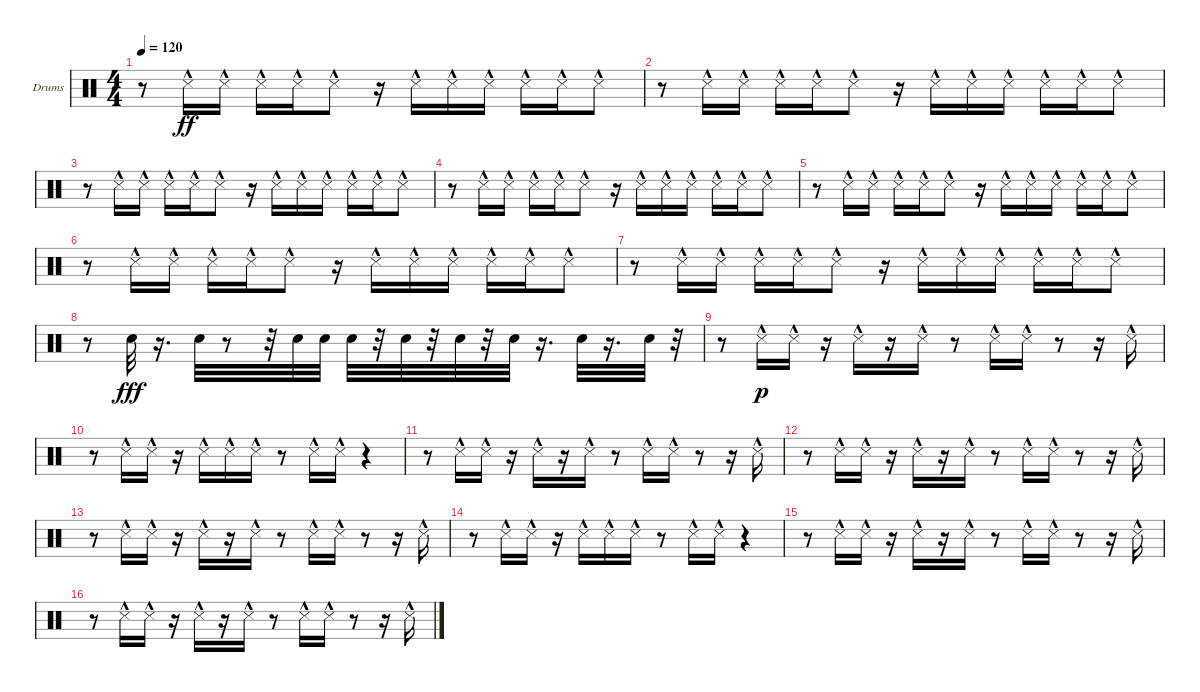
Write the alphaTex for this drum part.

\defaultSystemsLayout 4
\bracketExtendMode groupsimilarinstruments
\firstSystemTrackNameOrientation horizontal
\otherSystemsTrackNameOrientation horizontal
\track ("Drumkit" "Drums") {instrument percussion}
\staff {score}
\articulation defaults
\ts (4 4)
\tempo 120
\clef neutral
\scale
0.333333
\ks c
r.8{dy ff} "Snare (side stick) 3"{hac}.16 "Snare (side stick) 3"{hac}.16 "Snare (side stick) 3"{hac}.16 "Snare (side stick) 3"{hac}.16 "Snare (side stick) 3"{hac}.8 r.16 "Snare (side stick) 3"{hac}.16 "Snare (side stick) 3"{hac}.16 "Snare (side stick) 3"{hac}.16 "Snare (side stick) 3"{hac}.16 "Snare (side stick) 3"{hac}.16 "Snare (side stick) 3"{hac}.8 |
\scale
0.333333 r.8 "Snare (side stick) 3"{hac}.16 "Snare (side stick) 3"{hac}.16 "Snare (side stick) 3"{hac}.16 "Snare (side stick) 3"{hac}.16 "Snare (side stick) 3"{hac}.8 r.16 "Snare (side stick) 3"{hac}.16 "Snare (side stick) 3"{hac}.16 "Snare (side stick) 3"{hac}.16 "Snare (side stick) 3"{hac}.16 "Snare (side stick) 3"{hac}.16 "Snare (side stick) 3"{hac}.8 |
\scale
0.333333 r.8 "Snare (side stick) 3"{hac}.16 "Snare (side stick) 3"{hac}.16 "Snare (side stick) 3"{hac}.16 "Snare (side stick) 3"{hac}.16 "Snare (side stick) 3"{hac}.8 r.16 "Snare (side stick) 3"{hac}.16 "Snare (side stick) 3"{hac}.16 "Snare (side stick) 3"{hac}.16 "Snare (side stick) 3"{hac}.16 "Snare (side stick) 3"{hac}.16 "Snare (side stick) 3"{hac}.8 |
\scale
0.333333 r.8 "Snare (side stick) 3"{hac}.16 "Snare (side stick) 3"{hac}.16 "Snare (side stick) 3"{hac}.16 "Snare (side stick) 3"{hac}.16 "Snare (side stick) 3"{hac}.8 r.16 "Snare (side stick) 3"{hac}.16 "Snare (side stick) 3"{hac}.16 "Snare (side stick) 3"{hac}.16 "Snare (side stick) 3"{hac}.16 "Snare (side stick) 3"{hac}.16 "Snare (side stick) 3"{hac}.8 |
\scale
0.333333 r.8 "Snare (side stick) 3"{hac}.16 "Snare (side stick) 3"{hac}.16 "Snare (side stick) 3"{hac}.16 "Snare (side stick) 3"{hac}.16 "Snare (side stick) 3"{hac}.8 r.16 "Snare (side stick) 3"{hac}.16 "Snare (side stick) 3"{hac}.16 "Snare (side stick) 3"{hac}.16 "Snare (side stick) 3"{hac}.16 "Snare (side stick) 3"{hac}.16 "Snare (side stick) 3"{hac}.8 |
\scale
0.333333 r.8 "Snare (side stick) 3"{hac}.16 "Snare (side stick) 3"{hac}.16 "Snare (side stick) 3"{hac}.16 "Snare (side stick) 3"{hac}.16 "Snare (side stick) 3"{hac}.8 r.16 "Snare (side stick) 3"{hac}.16 "Snare (side stick) 3"{hac}.16 "Snare (side stick) 3"{hac}.16 "Snare (side stick) 3"{hac}.16 "Snare (side stick) 3"{hac}.16 "Snare (side stick) 3"{hac}.8 |
\scale
0.333333 r.8 "Snare (side stick) 3"{hac}.16 "Snare (side stick) 3"{hac}.16 "Snare (side stick) 3"{hac}.16 "Snare (side stick) 3"{hac}.16 "Snare (side stick) 3"{hac}.8 r.16 "Snare (side stick) 3"{hac}.16 "Snare (side stick) 3"{hac}.16 "Snare (side stick) 3"{hac}.16 "Snare (side stick) 3"{hac}.16 "Snare (side stick) 3"{hac}.16 "Snare (side stick) 3"{hac}.8 |
\scale
0.333333 r.8 "Snare (hit) 2".32{dy fff} r.16{d} "Snare (hit) 2".32 r.8 r.32 "Snare (hit) 2".32 "Snare (hit) 2".32 "Snare (hit) 2".32 r.32 "Snare (hit) 2".32 r.32 "Snare (hit) 2".32 r.32 "Snare (hit) 2".32 r.16{d} "Snare (hit) 2".32 r.16{d} "Snare (hit) 2".32 r.32 |
\scale
0.333333 r.8 "Snare (side stick) 3"{hac}.16{dy p} "Snare (side stick) 3"{hac}.16 r.16 "Snare (side stick) 3"{hac}.16 r.16 "Snare (side stick) 3"{hac}.16 r.8 "Snare (side stick) 3"{hac}.16 "Snare (side stick) 3"{hac}.16 r.8 r.16 "Snare (side stick) 3"{hac}.16 |
\scale
0.333333 r.8 "Snare (side stick) 3"{hac}.16 "Snare (side stick) 3"{hac}.16 r.16 "Snare (side stick) 3"{hac}.16 "Snare (side stick) 3"{hac}.16 "Snare (side stick) 3"{hac}.16 r.8 "Snare (side stick) 3"{hac}.16 "Snare (side stick) 3"{hac}.16 r.4 |
\scale
0.333333 r.8 "Snare (side stick) 3"{hac}.16 "Snare (side stick) 3"{hac}.16 r.16 "Snare (side stick) 3"{hac}.16 r.16 "Snare (side stick) 3"{hac}.16 r.8 "Snare (side stick) 3"{hac}.16 "Snare (side stick) 3"{hac}.16 r.8 r.16 "Snare (side stick) 3"{hac}.16 |
\scale
0.333333 r.8 "Snare (side stick) 3"{hac}.16 "Snare (side stick) 3"{hac}.16 r.16 "Snare (side stick) 3"{hac}.16 r.16 "Snare (side stick) 3"{hac}.16 r.8 "Snare (side stick) 3"{hac}.16 "Snare (side stick) 3"{hac}.16 r.8 r.16 "Snare (side stick) 3"{hac}.16 |
\scale
0.333333 r.8 "Snare (side stick) 3"{hac}.16 "Snare (side stick) 3"{hac}.16 r.16 "Snare (side stick) 3"{hac}.16 r.16 "Snare (side stick) 3"{hac}.16 r.8 "Snare (side stick) 3"{hac}.16 "Snare (side stick) 3"{hac}.16 r.8 r.16 "Snare (side stick) 3"{hac}.16 |
\scale
0.333333 r.8 "Snare (side stick) 3"{hac}.16 "Snare (side stick) 3"{hac}.16 r.16 "Snare (side stick) 3"{hac}.16 "Snare (side stick) 3"{hac}.16 "Snare (side stick) 3"{hac}.16 r.8 "Snare (side stick) 3"{hac}.16 "Snare (side stick) 3"{hac}.16 r.4 |
\scale
0.333333 r.8 "Snare (side stick) 3"{hac}.16 "Snare (side stick) 3"{hac}.16 r.16 "Snare (side stick) 3"{hac}.16 r.16 "Snare (side stick) 3"{hac}.16 r.8 "Snare (side stick) 3"{hac}.16 "Snare (side stick) 3"{hac}.16 r.8 r.16 "Snare (side stick) 3"{hac}.16 |
\scale
0.333333 r.8 "Snare (side stick) 3"{hac}.16 "Snare (side stick) 3"{hac}.16 r.16 "Snare (side stick) 3"{hac}.16 r.16 "Snare (side stick) 3"{hac}.16 r.8 "Snare (side stick) 3"{hac}.16 "Snare (side stick) 3"{hac}.16 r.8 r.16 "Snare (side stick) 3"{hac}.16
